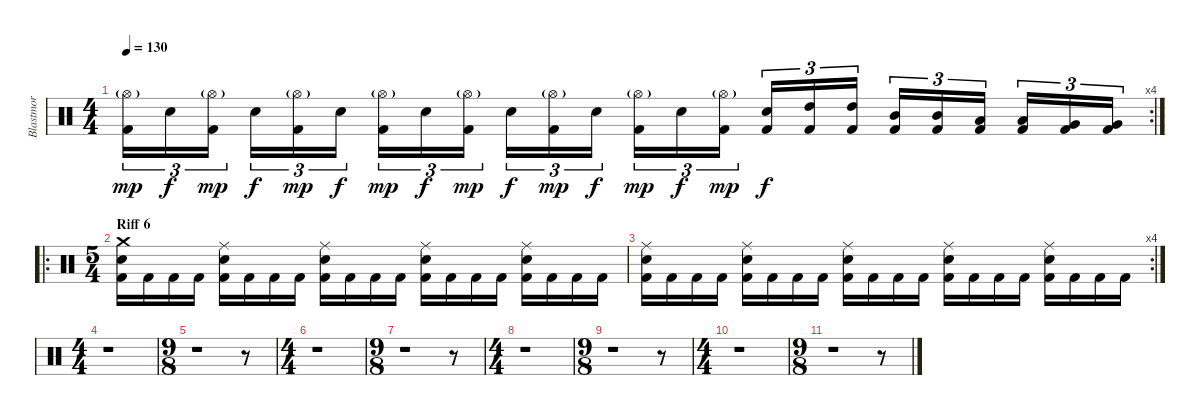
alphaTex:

\track ("Blastmor" "Blastmor") {instrument percussion}
\staff {score}
\articulation defaults
\rc 4
\ts (4 4)
\tempo 130
\clef neutral
\ks c
("Hi-Hat (open)"{g} "Kick (hit) 2").16{tu (3 2) dy mp} "Electric Snare (hit)".16{tu (3 2) dy f} ("Hi-Hat (open)"{g} "Kick (hit) 2").16{tu (3 2) dy mp} "Electric Snare (hit)".16{tu (3 2) dy f} ("Hi-Hat (open)"{g} "Kick (hit) 2").16{tu (3 2) dy mp} "Electric Snare (hit)".16{tu (3 2) dy f} ("Hi-Hat (open)"{g} "Kick (hit) 2").16{tu (3 2) dy mp} "Electric Snare (hit)".16{tu (3 2) dy f} ("Hi-Hat (open)"{g} "Kick (hit) 2").16{tu (3 2) dy mp} "Electric Snare (hit)".16{tu (3 2) dy f} ("Hi-Hat (open)"{g} "Kick (hit) 2").16{tu (3 2) dy mp} "Electric Snare (hit)".16{tu (3 2) dy f} ("Hi-Hat (open)"{g} "Kick (hit) 2").16{tu (3 2) dy mp} "Electric Snare (hit)".16{tu (3 2) dy f} ("Hi-Hat (open)"{g} "Kick (hit) 2").16{tu (3 2) dy mp} ("Electric Snare (hit)" "Kick (hit) 2").16{tu (3 2) dy f} ("High Tom (hit)" "Kick (hit) 2").16{tu (3 2)} ("High Tom (hit)" "Kick (hit) 2").16{tu (3 2)} ("Mid Tom (hit)" "Kick (hit) 2").16{tu (3 2)} ("Mid Tom (hit)" "Kick (hit) 2").16{tu (3 2)} ("Low Tom (hit)" "Kick (hit) 2").16{tu (3 2)} ("Low Tom (hit)" "Kick (hit) 2").16{tu (3 2)} ("Very Low Tom (hit)" "Kick (hit) 2").16{tu (3 2)} ("Very Low Tom (hit)" "Kick (hit) 2").16{tu (3 2)} |
\ro
\ts (5 4)
\section ("" "Riff 6")
("Crash medium (hit)" "Electric Snare (hit)" "Kick (hit) 2").16 "Kick (hit) 2".16 "Kick (hit) 2".16 "Kick (hit) 2".16 ("Ride (middle)" "Electric Snare (hit)" "Kick (hit) 2").16 "Kick (hit) 2".16 "Kick (hit) 2".16 "Kick (hit) 2".16 ("Ride (middle)" "Electric Snare (hit)" "Kick (hit) 2").16 "Kick (hit) 2".16 "Kick (hit) 2".16 "Kick (hit) 2".16 ("Ride (middle)" "Electric Snare (hit)" "Kick (hit) 2").16 "Kick (hit) 2".16 "Kick (hit) 2".16 "Kick (hit) 2".16 ("Ride (middle)" "Electric Snare (hit)" "Kick (hit) 2").16 "Kick (hit) 2".16 "Kick (hit) 2".16 "Kick (hit) 2".16 |
\rc 4
("Ride (middle)" "Electric Snare (hit)" "Kick (hit) 2").16 "Kick (hit) 2".16 "Kick (hit) 2".16 "Kick (hit) 2".16 ("Ride (middle)" "Electric Snare (hit)" "Kick (hit) 2").16 "Kick (hit) 2".16 "Kick (hit) 2".16 "Kick (hit) 2".16 ("Ride (middle)" "Electric Snare (hit)" "Kick (hit) 2").16 "Kick (hit) 2".16 "Kick (hit) 2".16 "Kick (hit) 2".16 ("Ride (middle)" "Electric Snare (hit)" "Kick (hit) 2").16 "Kick (hit) 2".16 "Kick (hit) 2".16 "Kick (hit) 2".16 ("Ride (middle)" "Electric Snare (hit)" "Kick (hit) 2").16 "Kick (hit) 2".16 "Kick (hit) 2".16 "Kick (hit) 2".16 |
\ts (4 4)
r.1 |
\ts (9 8)
r.1 r.8 |
\ts (4 4)
r.1 |
\ts (9 8)
r.1 r.8 |
\ts (4 4)
r.1 |
\ts (9 8)
r.1 r.8 |
\ts (4 4)
r.1 |
\ts (9 8)
r.1 r.8
